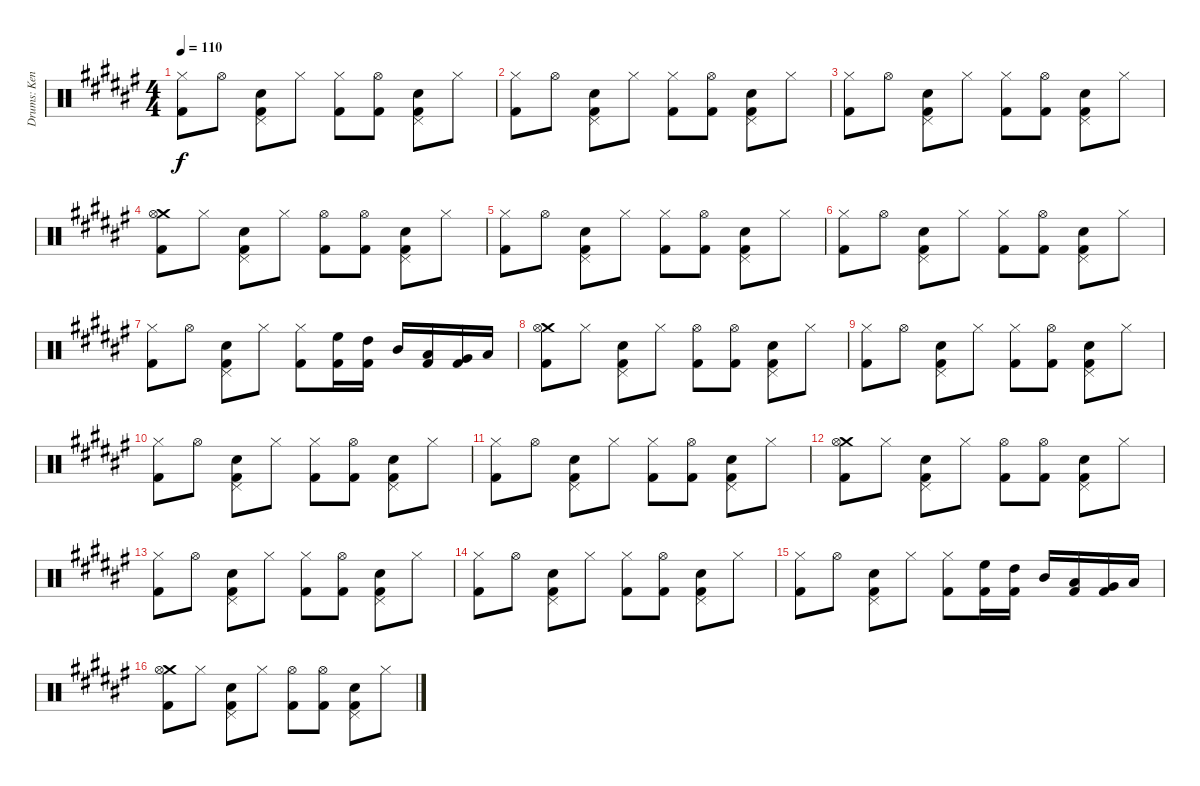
\track ("Drums: Kenny Aronoff" "Drums: Ken") {instrument percussion}
\staff {score}
\articulation defaults
\ts (4 4)
\tempo 110
\clef neutral
\ks f#
("Hi-Hat (closed)" "Kick (hit) 2").8{dy f} "Hi-Hat (open)".8 ("Pedal Hi-Hat (hit)" "Snare (hit) 2" "Kick (hit) 2").8 "Hi-Hat (closed)".8 ("Hi-Hat (closed)" "Kick (hit) 2").8 ("Hi-Hat (open)" "Kick (hit) 2").8 ("Pedal Hi-Hat (hit)" "Snare (hit) 2" "Kick (hit) 2").8 "Hi-Hat (closed)".8 |
("Hi-Hat (closed)" "Kick (hit) 2").8 "Hi-Hat (open)".8 ("Pedal Hi-Hat (hit)" "Snare (hit) 2" "Kick (hit) 2").8 "Hi-Hat (closed)".8 ("Hi-Hat (closed)" "Kick (hit) 2").8 ("Hi-Hat (open)" "Kick (hit) 2").8 ("Pedal Hi-Hat (hit)" "Snare (hit) 2" "Kick (hit) 2").8 "Hi-Hat (closed)".8 |
("Hi-Hat (closed)" "Kick (hit) 2").8 "Hi-Hat (open)".8 ("Pedal Hi-Hat (hit)" "Snare (hit) 2" "Kick (hit) 2").8 "Hi-Hat (closed)".8 ("Hi-Hat (closed)" "Kick (hit) 2").8 ("Hi-Hat (open)" "Kick (hit) 2").8 ("Pedal Hi-Hat (hit)" "Snare (hit) 2" "Kick (hit) 2").8 "Hi-Hat (closed)".8 |
("Crash medium (hit)" "Hi-Hat (open)" "Kick (hit) 2").8 "Hi-Hat (closed)".8 ("Pedal Hi-Hat (hit)" "Snare (hit) 2" "Kick (hit) 2").8 "Hi-Hat (closed)".8 ("Hi-Hat (open)" "Kick (hit) 2").8 ("Hi-Hat (open)" "Kick (hit) 2").8 ("Pedal Hi-Hat (hit)" "Snare (hit) 2" "Kick (hit) 2").8 "Hi-Hat (closed)".8 |
("Hi-Hat (closed)" "Kick (hit) 2").8 "Hi-Hat (open)".8 ("Pedal Hi-Hat (hit)" "Snare (hit) 2" "Kick (hit) 2").8 "Hi-Hat (closed)".8 ("Hi-Hat (closed)" "Kick (hit) 2").8 ("Hi-Hat (open)" "Kick (hit) 2").8 ("Pedal Hi-Hat (hit)" "Snare (hit) 2" "Kick (hit) 2").8 "Hi-Hat (closed)".8 |
("Hi-Hat (closed)" "Kick (hit) 2").8 "Hi-Hat (open)".8 ("Pedal Hi-Hat (hit)" "Snare (hit) 2" "Kick (hit) 2").8 "Hi-Hat (closed)".8 ("Hi-Hat (closed)" "Kick (hit) 2").8 ("Hi-Hat (open)" "Kick (hit) 2").8 ("Pedal Hi-Hat (hit)" "Snare (hit) 2" "Kick (hit) 2").8 "Hi-Hat (closed)".8 |
("Hi-Hat (closed)" "Kick (hit) 2").8 "Hi-Hat (open)".8 ("Pedal Hi-Hat (hit)" "Snare (hit) 2" "Kick (hit) 2").8 "Hi-Hat (closed)".8 ("Hi-Hat (closed)" "Kick (hit) 2").8 ("High Floor Tom (hit)" "Kick (hit) 2").16 ("High Tom (hit)" "Kick (hit) 2").16 "Mid Tom (hit)".16 ("Low Tom (hit)" "Kick (hit) 2").16 ("Very Low Tom (hit)" "Kick (hit) 2").16 "Low Floor Tom (hit)".16 |
("Crash medium (hit)" "Hi-Hat (open)" "Kick (hit) 2").8 "Hi-Hat (closed)".8 ("Pedal Hi-Hat (hit)" "Snare (hit) 2" "Kick (hit) 2").8 "Hi-Hat (closed)".8 ("Hi-Hat (open)" "Kick (hit) 2").8 ("Hi-Hat (open)" "Kick (hit) 2").8 ("Pedal Hi-Hat (hit)" "Snare (hit) 2" "Kick (hit) 2").8 "Hi-Hat (closed)".8 |
("Hi-Hat (closed)" "Kick (hit) 2").8 "Hi-Hat (open)".8 ("Pedal Hi-Hat (hit)" "Snare (hit) 2" "Kick (hit) 2").8 "Hi-Hat (closed)".8 ("Hi-Hat (closed)" "Kick (hit) 2").8 ("Hi-Hat (open)" "Kick (hit) 2").8 ("Pedal Hi-Hat (hit)" "Snare (hit) 2" "Kick (hit) 2").8 "Hi-Hat (closed)".8 |
("Hi-Hat (closed)" "Kick (hit) 2").8 "Hi-Hat (open)".8 ("Pedal Hi-Hat (hit)" "Snare (hit) 2" "Kick (hit) 2").8 "Hi-Hat (closed)".8 ("Hi-Hat (closed)" "Kick (hit) 2").8 ("Hi-Hat (open)" "Kick (hit) 2").8 ("Pedal Hi-Hat (hit)" "Snare (hit) 2" "Kick (hit) 2").8 "Hi-Hat (closed)".8 |
("Hi-Hat (closed)" "Kick (hit) 2").8 "Hi-Hat (open)".8 ("Pedal Hi-Hat (hit)" "Snare (hit) 2" "Kick (hit) 2").8 "Hi-Hat (closed)".8 ("Hi-Hat (closed)" "Kick (hit) 2").8 ("Hi-Hat (open)" "Kick (hit) 2").8 ("Pedal Hi-Hat (hit)" "Snare (hit) 2" "Kick (hit) 2").8 "Hi-Hat (closed)".8 |
("Crash medium (hit)" "Hi-Hat (open)" "Kick (hit) 2").8 "Hi-Hat (closed)".8 ("Pedal Hi-Hat (hit)" "Snare (hit) 2" "Kick (hit) 2").8 "Hi-Hat (closed)".8 ("Hi-Hat (open)" "Kick (hit) 2").8 ("Hi-Hat (open)" "Kick (hit) 2").8 ("Pedal Hi-Hat (hit)" "Snare (hit) 2" "Kick (hit) 2").8 "Hi-Hat (closed)".8 |
("Hi-Hat (closed)" "Kick (hit) 2").8 "Hi-Hat (open)".8 ("Pedal Hi-Hat (hit)" "Snare (hit) 2" "Kick (hit) 2").8 "Hi-Hat (closed)".8 ("Hi-Hat (closed)" "Kick (hit) 2").8 ("Hi-Hat (open)" "Kick (hit) 2").8 ("Pedal Hi-Hat (hit)" "Snare (hit) 2" "Kick (hit) 2").8 "Hi-Hat (closed)".8 |
("Hi-Hat (closed)" "Kick (hit) 2").8 "Hi-Hat (open)".8 ("Pedal Hi-Hat (hit)" "Snare (hit) 2" "Kick (hit) 2").8 "Hi-Hat (closed)".8 ("Hi-Hat (closed)" "Kick (hit) 2").8 ("Hi-Hat (open)" "Kick (hit) 2").8 ("Pedal Hi-Hat (hit)" "Snare (hit) 2" "Kick (hit) 2").8 "Hi-Hat (closed)".8 |
("Hi-Hat (closed)" "Kick (hit) 2").8 "Hi-Hat (open)".8 ("Pedal Hi-Hat (hit)" "Snare (hit) 2" "Kick (hit) 2").8 "Hi-Hat (closed)".8 ("Hi-Hat (closed)" "Kick (hit) 2").8 ("High Floor Tom (hit)" "Kick (hit) 2").16 ("High Tom (hit)" "Kick (hit) 2").16 "Mid Tom (hit)".16 ("Low Tom (hit)" "Kick (hit) 2").16 ("Very Low Tom (hit)" "Kick (hit) 2").16 "Low Floor Tom (hit)".16 |
("Crash medium (hit)" "Hi-Hat (open)" "Kick (hit) 2").8 "Hi-Hat (closed)".8 ("Pedal Hi-Hat (hit)" "Snare (hit) 2" "Kick (hit) 2").8 "Hi-Hat (closed)".8 ("Hi-Hat (open)" "Kick (hit) 2").8 ("Hi-Hat (open)" "Kick (hit) 2").8 ("Pedal Hi-Hat (hit)" "Snare (hit) 2" "Kick (hit) 2").8 "Hi-Hat (closed)".8
